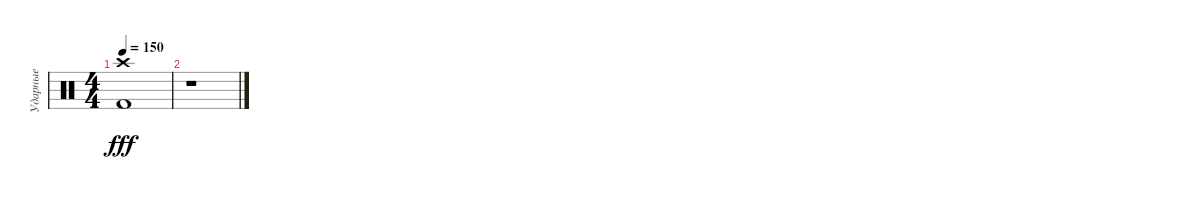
\track ("Ударные" "Ударные") {instrument percussion}
\staff {score}
\articulation defaults
\ts (4 4)
\tempo 150
\clef neutral
\ks c
("Crash high (hit)"{t} "Kick (hit) 2"{t}).1{dy fff} |
r.1
